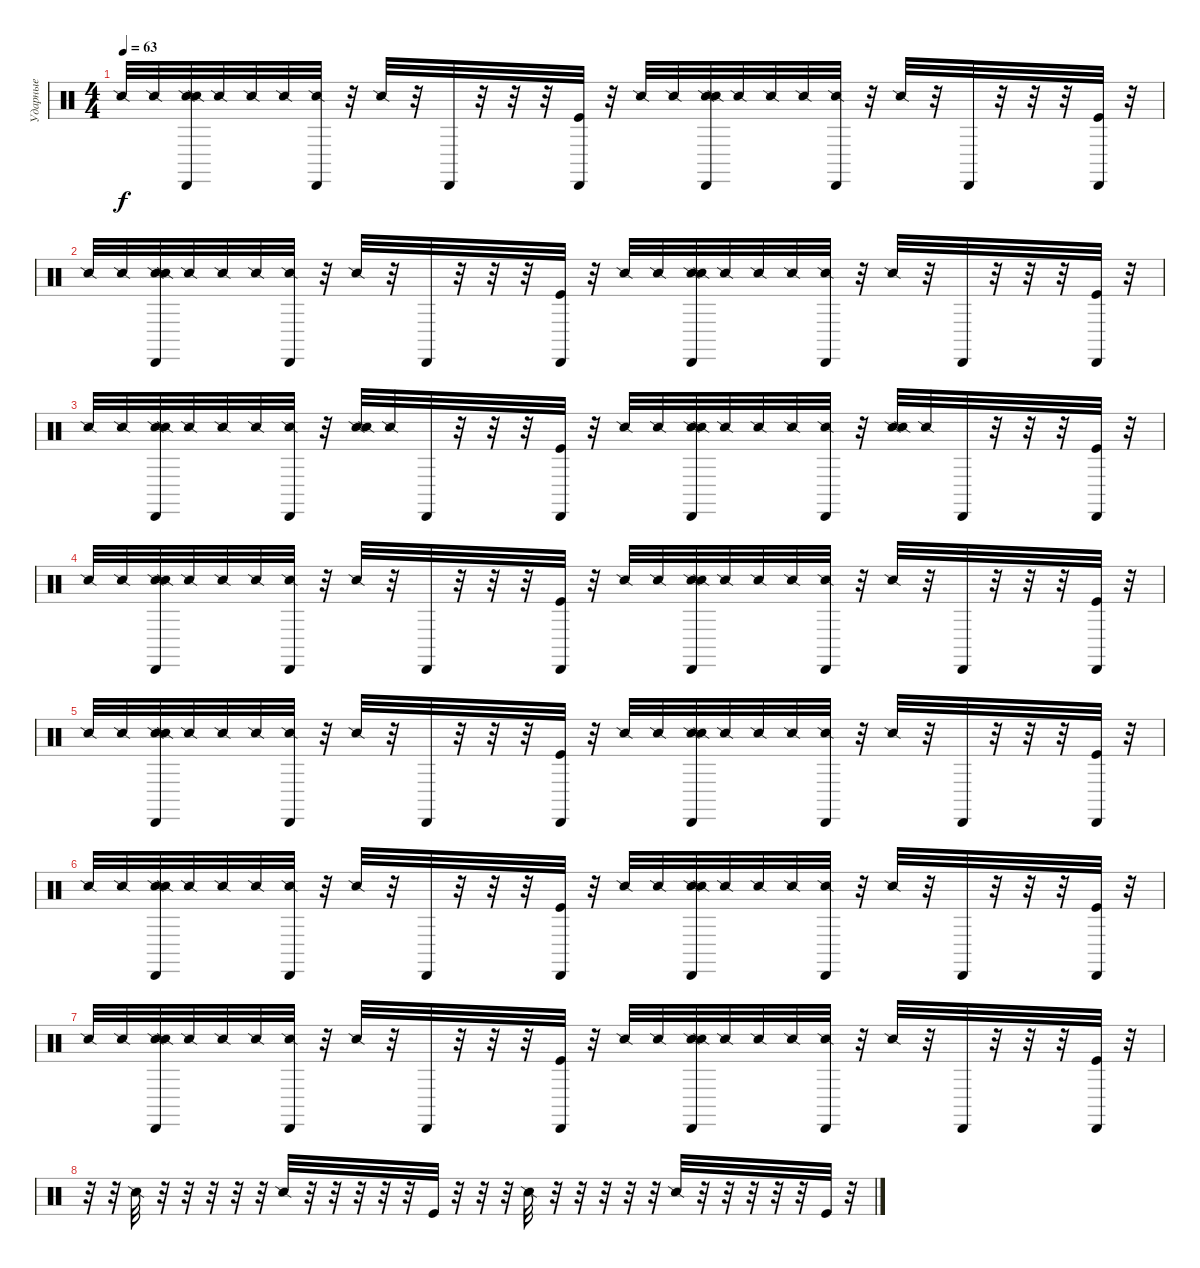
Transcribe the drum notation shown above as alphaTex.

\track ("Ударные" "Ударные") {instrument percussion}
\staff {score}
\articulation defaults
\ts (4 4)
\tempo 63
\clef neutral
\ks c "Snare (side stick) 2".32{dy f} "Snare (side stick) 2".32
("Snare (side stick) 2" "Snare (side stick) 2" "Cabasa (hit)").32 "Snare (side stick) 2".32 "Snare (side stick) 2".32 "Snare (side stick) 2".32 ("Snare (side stick) 2" "Cabasa (hit)").32 r.32 "Snare (side stick) 2".32 r.32 "Cabasa (hit)".32 r.32 r.32 r.32 ("Kick (hit)" "Cabasa (hit)").32 r.32 "Snare (side stick) 2".32 "Snare (side stick) 2".32 ("Snare (side stick) 2" "Snare (side stick) 2" "Cabasa (hit)").32 "Snare (side stick) 2".32 "Snare (side stick) 2".32 "Snare (side stick) 2".32 ("Snare (side stick) 2" "Cabasa (hit)").32 r.32 "Snare (side stick) 2".32 r.32 "Cabasa (hit)".32 r.32 r.32 r.32 ("Kick (hit)" "Cabasa (hit)").32 r.32 |
"Snare (side stick) 2".32 "Snare (side stick) 2".32 ("Snare (side stick) 2" "Snare (side stick) 2" "Cabasa (hit)").32 "Snare (side stick) 2".32 "Snare (side stick) 2".32 "Snare (side stick) 2".32 ("Snare (side stick) 2" "Cabasa (hit)").32 r.32 "Snare (side stick) 2".32 r.32 "Cabasa (hit)".32 r.32 r.32 r.32 ("Kick (hit)" "Cabasa (hit)").32 r.32 "Snare (side stick) 2".32 "Snare (side stick) 2".32 ("Snare (side stick) 2" "Snare (side stick) 2" "Cabasa (hit)").32 "Snare (side stick) 2".32 "Snare (side stick) 2".32 "Snare (side stick) 2".32 ("Snare (side stick) 2" "Cabasa (hit)").32 r.32 "Snare (side stick) 2".32 r.32 "Cabasa (hit)".32 r.32 r.32 r.32 ("Kick (hit)" "Cabasa (hit)").32 r.32 |
"Snare (side stick) 2".32 "Snare (side stick) 2".32 ("Snare (side stick) 2" "Snare (side stick) 2" "Cabasa (hit)").32 "Snare (side stick) 2".32 "Snare (side stick) 2".32 "Snare (side stick) 2".32 ("Snare (side stick) 2" "Cabasa (hit)").32 r.32 ("Snare (side stick) 2" "Snare (side stick) 2").32 "Snare (side stick) 2".32 "Cabasa (hit)".32 r.32 r.32 r.32 ("Kick (hit)" "Cabasa (hit)").32 r.32 "Snare (side stick) 2".32 "Snare (side stick) 2".32 ("Snare (side stick) 2" "Snare (side stick) 2" "Cabasa (hit)").32 "Snare (side stick) 2".32 "Snare (side stick) 2".32 "Snare (side stick) 2".32 ("Snare (side stick) 2" "Cabasa (hit)").32 r.32 ("Snare (side stick) 2" "Snare (side stick) 2").32 "Snare (side stick) 2".32 "Cabasa (hit)".32 r.32 r.32 r.32 ("Kick (hit)" "Cabasa (hit)").32 r.32 |
"Snare (side stick) 2".32 "Snare (side stick) 2".32 ("Snare (side stick) 2" "Snare (side stick) 2" "Cabasa (hit)").32 "Snare (side stick) 2".32 "Snare (side stick) 2".32 "Snare (side stick) 2".32 ("Snare (side stick) 2" "Cabasa (hit)").32 r.32 "Snare (side stick) 2".32 r.32 "Cabasa (hit)".32 r.32 r.32 r.32 ("Kick (hit)" "Cabasa (hit)").32 r.32 "Snare (side stick) 2".32 "Snare (side stick) 2".32 ("Snare (side stick) 2" "Snare (side stick) 2" "Cabasa (hit)").32 "Snare (side stick) 2".32 "Snare (side stick) 2".32 "Snare (side stick) 2".32 ("Snare (side stick) 2" "Cabasa (hit)").32 r.32 "Snare (side stick) 2".32 r.32 "Cabasa (hit)".32 r.32 r.32 r.32 ("Kick (hit)" "Cabasa (hit)").32 r.32 |
"Snare (side stick) 2".32 "Snare (side stick) 2".32 ("Snare (side stick) 2" "Snare (side stick) 2" "Cabasa (hit)").32 "Snare (side stick) 2".32 "Snare (side stick) 2".32 "Snare (side stick) 2".32 ("Snare (side stick) 2" "Cabasa (hit)").32 r.32 "Snare (side stick) 2".32 r.32 "Cabasa (hit)".32 r.32 r.32 r.32 ("Kick (hit)" "Cabasa (hit)").32 r.32 "Snare (side stick) 2".32 "Snare (side stick) 2".32 ("Snare (side stick) 2" "Snare (side stick) 2" "Cabasa (hit)").32 "Snare (side stick) 2".32 "Snare (side stick) 2".32 "Snare (side stick) 2".32 ("Snare (side stick) 2" "Cabasa (hit)").32 r.32 "Snare (side stick) 2".32 r.32 "Cabasa (hit)".32 r.32 r.32 r.32 ("Kick (hit)" "Cabasa (hit)").32 r.32 |
"Snare (side stick) 2".32 "Snare (side stick) 2".32 ("Snare (side stick) 2" "Snare (side stick) 2" "Cabasa (hit)").32 "Snare (side stick) 2".32 "Snare (side stick) 2".32 "Snare (side stick) 2".32 ("Snare (side stick) 2" "Cabasa (hit)").32 r.32 "Snare (side stick) 2".32 r.32 "Cabasa (hit)".32 r.32 r.32 r.32 ("Kick (hit)" "Cabasa (hit)").32 r.32 "Snare (side stick) 2".32 "Snare (side stick) 2".32 ("Snare (side stick) 2" "Snare (side stick) 2" "Cabasa (hit)").32 "Snare (side stick) 2".32 "Snare (side stick) 2".32 "Snare (side stick) 2".32 ("Snare (side stick) 2" "Cabasa (hit)").32 r.32 "Snare (side stick) 2".32 r.32 "Cabasa (hit)".32 r.32 r.32 r.32 ("Kick (hit)" "Cabasa (hit)").32 r.32 |
"Snare (side stick) 2".32 "Snare (side stick) 2".32 ("Snare (side stick) 2" "Snare (side stick) 2" "Cabasa (hit)").32 "Snare (side stick) 2".32 "Snare (side stick) 2".32 "Snare (side stick) 2".32 ("Snare (side stick) 2" "Cabasa (hit)").32 r.32 "Snare (side stick) 2".32 r.32 "Cabasa (hit)".32 r.32 r.32 r.32 ("Kick (hit)" "Cabasa (hit)").32 r.32 "Snare (side stick) 2".32 "Snare (side stick) 2".32 ("Snare (side stick) 2" "Snare (side stick) 2" "Cabasa (hit)").32 "Snare (side stick) 2".32 "Snare (side stick) 2".32 "Snare (side stick) 2".32 ("Snare (side stick) 2" "Cabasa (hit)").32 r.32 "Snare (side stick) 2".32 r.32 "Cabasa (hit)".32 r.32 r.32 r.32 ("Kick (hit)" "Cabasa (hit)").32 r.32 |
r.32 r.32 "Snare (side stick) 2".32 r.32 r.32 r.32 r.32 r.32 "Snare (side stick) 2".32 r.32 r.32 r.32 r.32 r.32 "Kick (hit)".32 r.32 r.32 r.32 "Snare (side stick) 2".32 r.32 r.32 r.32 r.32 r.32 "Snare (side stick) 2".32 r.32 r.32 r.32 r.32 r.32 "Kick (hit)".32 r.32
